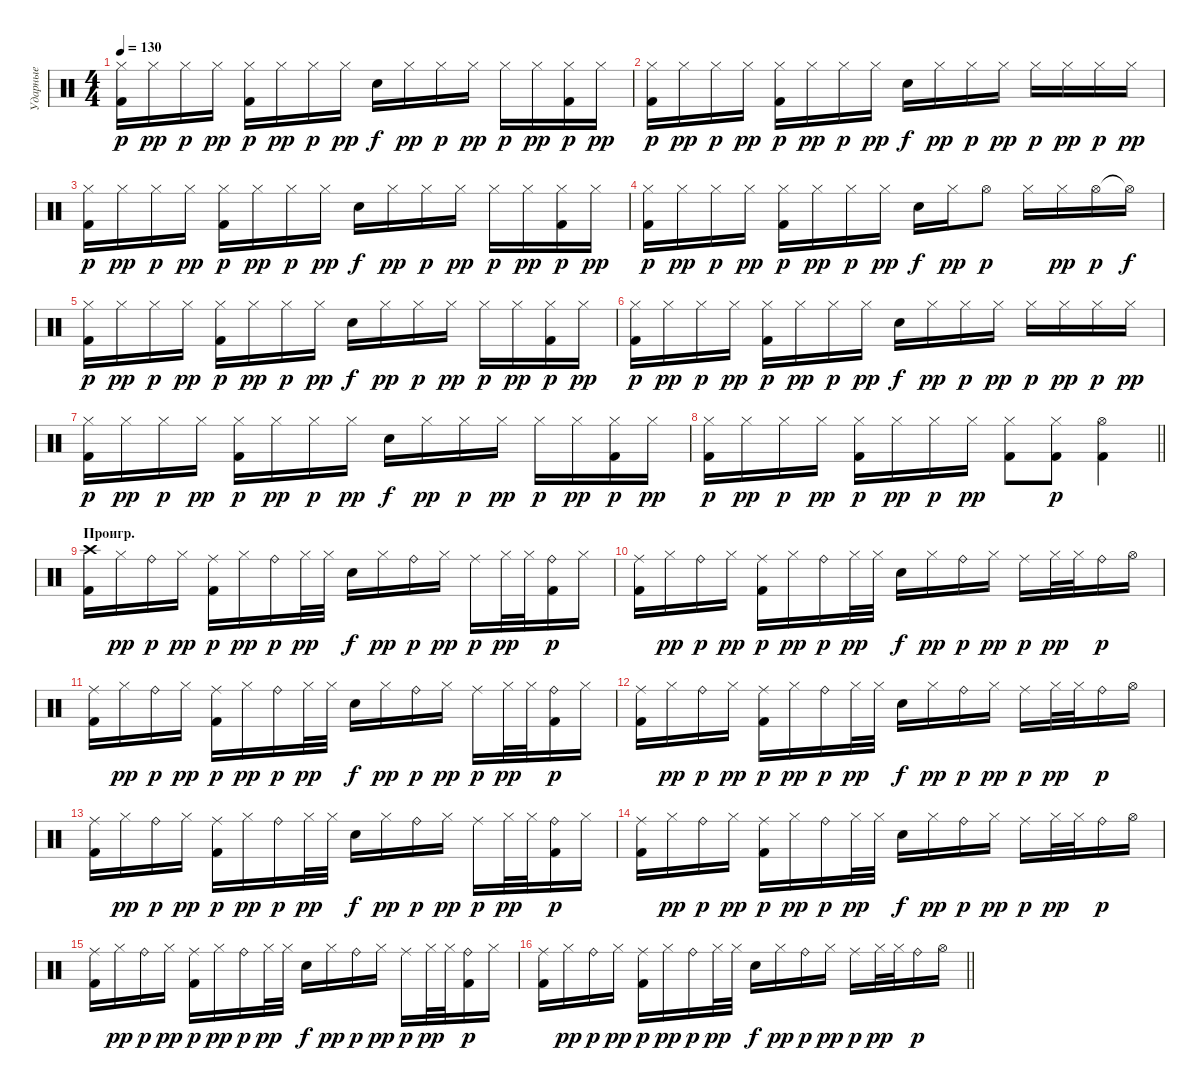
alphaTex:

\track ("Ударные" "Ударные") {instrument percussion}
\staff {score}
\articulation defaults
\ts (4 4)
\tempo 130
\clef neutral
\ks c
("Hi-Hat (closed)" "Kick (hit) 2").16{dy p} "Hi-Hat (closed)".16{dy pp} "Hi-Hat (closed)".16{dy p} "Hi-Hat (closed)".16{dy pp} ("Hi-Hat (closed)" "Kick (hit) 2").16{dy p} "Hi-Hat (closed)".16{dy pp} "Hi-Hat (closed)".16{dy p} "Hi-Hat (closed)".16{dy pp} "Snare (hit) 2".16{dy f} "Hi-Hat (closed)".16{dy pp} "Hi-Hat (closed)".16{dy p} "Hi-Hat (closed)".16{dy pp} "Hi-Hat (closed)".16{dy p} "Hi-Hat (closed)".16{dy pp} ("Hi-Hat (closed)" "Kick (hit) 2").16{dy p} "Hi-Hat (closed)".16{dy pp} |
("Hi-Hat (closed)" "Kick (hit) 2").16{dy p} "Hi-Hat (closed)".16{dy pp} "Hi-Hat (closed)".16{dy p} "Hi-Hat (closed)".16{dy pp} ("Hi-Hat (closed)" "Kick (hit) 2").16{dy p} "Hi-Hat (closed)".16{dy pp} "Hi-Hat (closed)".16{dy p} "Hi-Hat (closed)".16{dy pp} "Snare (hit) 2".16{dy f} "Hi-Hat (closed)".16{dy pp} "Hi-Hat (closed)".16{dy p} "Hi-Hat (closed)".16{dy pp} "Hi-Hat (closed)".16{dy p} "Hi-Hat (closed)".16{dy pp} "Hi-Hat (closed)".16{dy p} "Hi-Hat (closed)".16{dy pp} |
("Hi-Hat (closed)" "Kick (hit) 2").16{dy p} "Hi-Hat (closed)".16{dy pp} "Hi-Hat (closed)".16{dy p} "Hi-Hat (closed)".16{dy pp} ("Hi-Hat (closed)" "Kick (hit) 2").16{dy p} "Hi-Hat (closed)".16{dy pp} "Hi-Hat (closed)".16{dy p} "Hi-Hat (closed)".16{dy pp} "Snare (hit) 2".16{dy f} "Hi-Hat (closed)".16{dy pp} "Hi-Hat (closed)".16{dy p} "Hi-Hat (closed)".16{dy pp} "Hi-Hat (closed)".16{dy p} "Hi-Hat (closed)".16{dy pp} ("Hi-Hat (closed)" "Kick (hit) 2").16{dy p} "Hi-Hat (closed)".16{dy pp} |
("Hi-Hat (closed)" "Kick (hit) 2").16{dy p} "Hi-Hat (closed)".16{dy pp} "Hi-Hat (closed)".16{dy p} "Hi-Hat (closed)".16{dy pp} ("Hi-Hat (closed)" "Kick (hit) 2").16{dy p} "Hi-Hat (closed)".16{dy pp} "Hi-Hat (closed)".16{dy p} "Hi-Hat (closed)".16{dy pp} "Snare (hit) 2".16{dy f} "Hi-Hat (closed)".16{dy pp} "Hi-Hat (open)".8{dy p} "Hi-Hat (closed)".16 "Hi-Hat (closed)".16{dy pp} "Hi-Hat (open)".16{dy p} "Hi-Hat (open)"{t}.16{dy f} |
("Hi-Hat (closed)" "Kick (hit) 2").16{dy p} "Hi-Hat (closed)".16{dy pp} "Hi-Hat (closed)".16{dy p} "Hi-Hat (closed)".16{dy pp} ("Hi-Hat (closed)" "Kick (hit) 2").16{dy p} "Hi-Hat (closed)".16{dy pp} "Hi-Hat (closed)".16{dy p} "Hi-Hat (closed)".16{dy pp} "Snare (hit) 2".16{dy f} "Hi-Hat (closed)".16{dy pp} "Hi-Hat (closed)".16{dy p} "Hi-Hat (closed)".16{dy pp} "Hi-Hat (closed)".16{dy p} "Hi-Hat (closed)".16{dy pp} ("Hi-Hat (closed)" "Kick (hit) 2").16{dy p} "Hi-Hat (closed)".16{dy pp} |
("Hi-Hat (closed)" "Kick (hit) 2").16{dy p} "Hi-Hat (closed)".16{dy pp} "Hi-Hat (closed)".16{dy p} "Hi-Hat (closed)".16{dy pp} ("Hi-Hat (closed)" "Kick (hit) 2").16{dy p} "Hi-Hat (closed)".16{dy pp} "Hi-Hat (closed)".16{dy p} "Hi-Hat (closed)".16{dy pp} "Snare (hit) 2".16{dy f} "Hi-Hat (closed)".16{dy pp} "Hi-Hat (closed)".16{dy p} "Hi-Hat (closed)".16{dy pp} "Hi-Hat (closed)".16{dy p} "Hi-Hat (closed)".16{dy pp} "Hi-Hat (closed)".16{dy p} "Hi-Hat (closed)".16{dy pp} |
("Hi-Hat (closed)" "Kick (hit) 2").16{dy p} "Hi-Hat (closed)".16{dy pp} "Hi-Hat (closed)".16{dy p} "Hi-Hat (closed)".16{dy pp} ("Hi-Hat (closed)" "Kick (hit) 2").16{dy p} "Hi-Hat (closed)".16{dy pp} "Hi-Hat (closed)".16{dy p} "Hi-Hat (closed)".16{dy pp} "Snare (hit) 2".16{dy f} "Hi-Hat (closed)".16{dy pp} "Hi-Hat (closed)".16{dy p} "Hi-Hat (closed)".16{dy pp} "Hi-Hat (closed)".16{dy p} "Hi-Hat (closed)".16{dy pp} ("Hi-Hat (closed)" "Kick (hit) 2").16{dy p} "Hi-Hat (closed)".16{dy pp} |
\barLineRight lightlight
("Hi-Hat (closed)" "Kick (hit) 2").16{dy p} "Hi-Hat (closed)".16{dy pp} "Hi-Hat (closed)".16{dy p} "Hi-Hat (closed)".16{dy pp} ("Hi-Hat (closed)" "Kick (hit) 2").16{dy p} "Hi-Hat (closed)".16{dy pp} "Hi-Hat (closed)".16{dy p} "Hi-Hat (closed)".16{dy pp} ("Hi-Hat (closed)" "Kick (hit) 2").8 ("Hi-Hat (closed)" "Kick (hit) 2").8{dy p} ("Hi-Hat (open)" "Kick (hit) 2").4 |
\section ("" "Проигр.")
("Crash high (hit)" "Kick (hit) 2").16 "Hi-Hat (closed)".16{dy pp} "Ride (bell)".16{dy p} "Hi-Hat (closed)".16{dy pp} ("Ride (middle)" "Kick (hit) 2").16{dy p} "Hi-Hat (closed)".16{dy pp} "Ride (bell)".16{dy p} "Hi-Hat (closed)".32{dy pp} "Hi-Hat (closed)".32 "Snare (hit) 2".16{dy f} "Hi-Hat (closed)".16{dy pp} "Ride (bell)".16{dy p} "Hi-Hat (closed)".16{dy pp} "Ride (middle)".16{dy p} "Hi-Hat (closed)".32{dy pp} "Hi-Hat (closed)".32 ("Ride (bell)" "Kick (hit) 2").16{dy p} "Hi-Hat (closed)".16 |
("Ride (middle)" "Kick (hit) 2").16 "Hi-Hat (closed)".16{dy pp} "Ride (bell)".16{dy p} "Hi-Hat (closed)".16{dy pp} ("Ride (middle)" "Kick (hit) 2").16{dy p} "Hi-Hat (closed)".16{dy pp} "Ride (bell)".16{dy p} "Hi-Hat (closed)".32{dy pp} "Hi-Hat (closed)".32 "Snare (hit) 2".16{dy f} "Hi-Hat (closed)".16{dy pp} "Ride (bell)".16{dy p} "Hi-Hat (closed)".16{dy pp} "Ride (middle)".16{dy p} "Hi-Hat (closed)".32{dy pp} "Hi-Hat (closed)".32 "Ride (bell)".16{dy p} "Hi-Hat (open)".16 |
("Ride (middle)" "Kick (hit) 2").16 "Hi-Hat (closed)".16{dy pp} "Ride (bell)".16{dy p} "Hi-Hat (closed)".16{dy pp} ("Ride (middle)" "Kick (hit) 2").16{dy p} "Hi-Hat (closed)".16{dy pp} "Ride (bell)".16{dy p} "Hi-Hat (closed)".32{dy pp} "Hi-Hat (closed)".32 "Snare (hit) 2".16{dy f} "Hi-Hat (closed)".16{dy pp} "Ride (bell)".16{dy p} "Hi-Hat (closed)".16{dy pp} "Ride (middle)".16{dy p} "Hi-Hat (closed)".32{dy pp} "Hi-Hat (closed)".32 ("Ride (bell)" "Kick (hit) 2").16{dy p} "Hi-Hat (closed)".16 |
("Ride (middle)" "Kick (hit) 2").16 "Hi-Hat (closed)".16{dy pp} "Ride (bell)".16{dy p} "Hi-Hat (closed)".16{dy pp} ("Ride (middle)" "Kick (hit) 2").16{dy p} "Hi-Hat (closed)".16{dy pp} "Ride (bell)".16{dy p} "Hi-Hat (closed)".32{dy pp} "Hi-Hat (closed)".32 "Snare (hit) 2".16{dy f} "Hi-Hat (closed)".16{dy pp} "Ride (bell)".16{dy p} "Hi-Hat (closed)".16{dy pp} "Ride (middle)".16{dy p} "Hi-Hat (closed)".32{dy pp} "Hi-Hat (closed)".32 "Ride (bell)".16{dy p} "Hi-Hat (open)".16 |
("Ride (middle)" "Kick (hit) 2").16 "Hi-Hat (closed)".16{dy pp} "Ride (bell)".16{dy p} "Hi-Hat (closed)".16{dy pp} ("Ride (middle)" "Kick (hit) 2").16{dy p} "Hi-Hat (closed)".16{dy pp} "Ride (bell)".16{dy p} "Hi-Hat (closed)".32{dy pp} "Hi-Hat (closed)".32 "Snare (hit) 2".16{dy f} "Hi-Hat (closed)".16{dy pp} "Ride (bell)".16{dy p} "Hi-Hat (closed)".16{dy pp} "Ride (middle)".16{dy p} "Hi-Hat (closed)".32{dy pp} "Hi-Hat (closed)".32 ("Ride (bell)" "Kick (hit) 2").16{dy p} "Hi-Hat (closed)".16 |
("Ride (middle)" "Kick (hit) 2").16 "Hi-Hat (closed)".16{dy pp} "Ride (bell)".16{dy p} "Hi-Hat (closed)".16{dy pp} ("Ride (middle)" "Kick (hit) 2").16{dy p} "Hi-Hat (closed)".16{dy pp} "Ride (bell)".16{dy p} "Hi-Hat (closed)".32{dy pp} "Hi-Hat (closed)".32 "Snare (hit) 2".16{dy f} "Hi-Hat (closed)".16{dy pp} "Ride (bell)".16{dy p} "Hi-Hat (closed)".16{dy pp} "Ride (middle)".16{dy p} "Hi-Hat (closed)".32{dy pp} "Hi-Hat (closed)".32 "Ride (bell)".16{dy p} "Hi-Hat (open)".16 |
("Ride (middle)" "Kick (hit) 2").16 "Hi-Hat (closed)".16{dy pp} "Ride (bell)".16{dy p} "Hi-Hat (closed)".16{dy pp} ("Ride (middle)" "Kick (hit) 2").16{dy p} "Hi-Hat (closed)".16{dy pp} "Ride (bell)".16{dy p} "Hi-Hat (closed)".32{dy pp} "Hi-Hat (closed)".32 "Snare (hit) 2".16{dy f} "Hi-Hat (closed)".16{dy pp} "Ride (bell)".16{dy p} "Hi-Hat (closed)".16{dy pp} "Ride (middle)".16{dy p} "Hi-Hat (closed)".32{dy pp} "Hi-Hat (closed)".32 ("Ride (bell)" "Kick (hit) 2").16{dy p} "Hi-Hat (closed)".16 |
\barLineRight lightlight
("Ride (middle)" "Kick (hit) 2").16 "Hi-Hat (closed)".16{dy pp} "Ride (bell)".16{dy p} "Hi-Hat (closed)".16{dy pp} ("Ride (middle)" "Kick (hit) 2").16{dy p} "Hi-Hat (closed)".16{dy pp} "Ride (bell)".16{dy p} "Hi-Hat (closed)".32{dy pp} "Hi-Hat (closed)".32 "Snare (hit) 2".16{dy f} "Hi-Hat (closed)".16{dy pp} "Ride (bell)".16{dy p} "Hi-Hat (closed)".16{dy pp} "Ride (middle)".16{dy p} "Hi-Hat (closed)".32{dy pp} "Hi-Hat (closed)".32 "Ride (bell)".16{dy p} "Hi-Hat (open)".16
